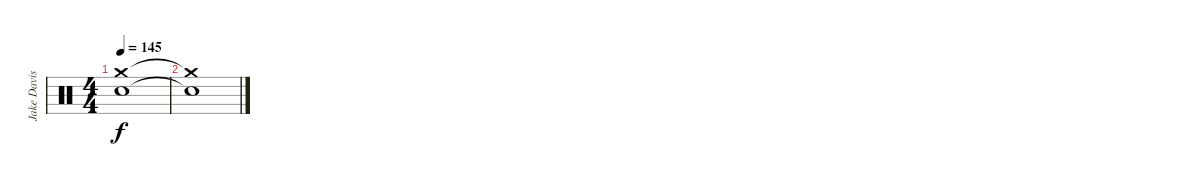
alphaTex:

\track ("Jake Davison (Drums)" "Jake Davis") {instrument percussion}
\staff {score}
\articulation defaults
\ts (4 4)
\tempo 145
\clef neutral
\ks c
("Crash medium (hit)"{t} "Snare (hit)"{t}).1{dy f} |
("Crash medium (hit)"{t} "Snare (hit)"{t}).1
